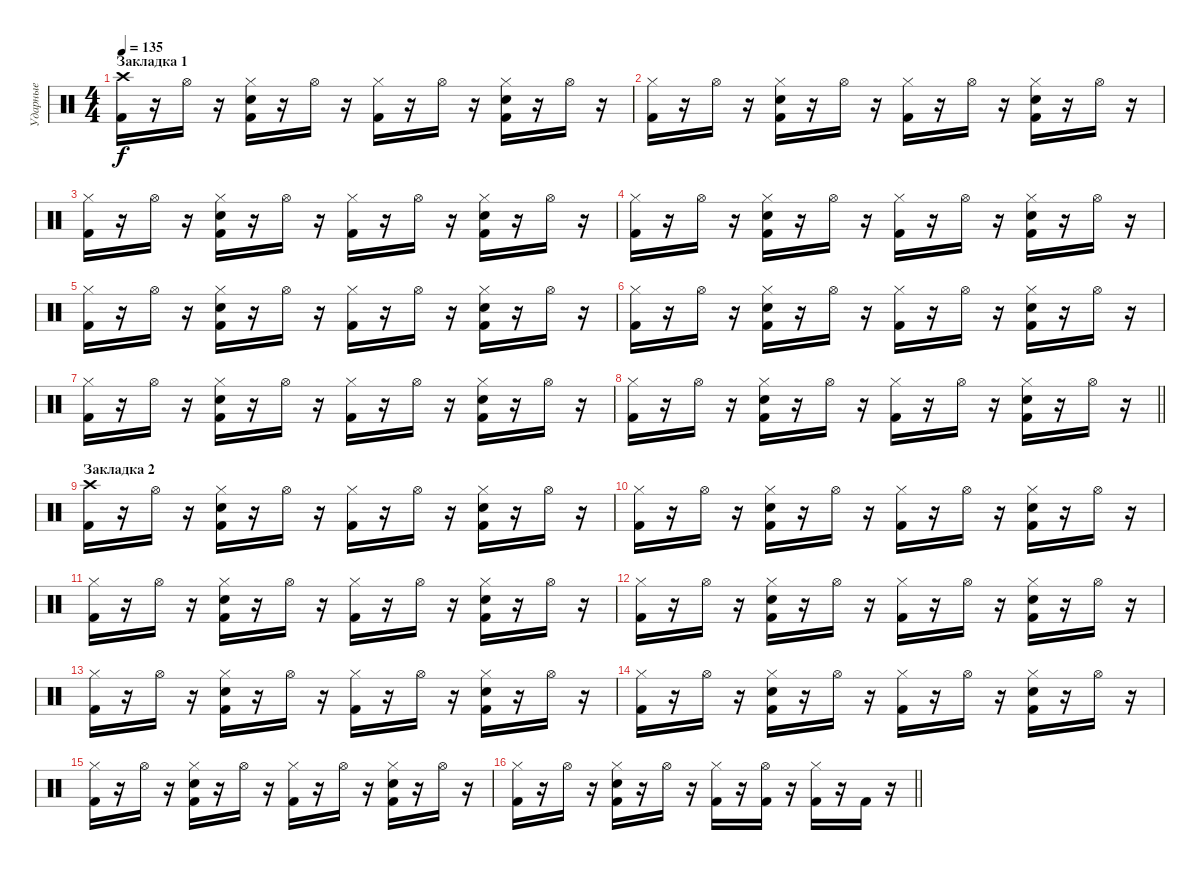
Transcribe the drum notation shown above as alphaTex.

\track ("Ударные" "Ударные") {instrument percussion}
\staff {score}
\articulation defaults
\ts (4 4)
\section ("" "Закладка 1")
\tempo 135
\clef neutral
\ks c
("Crash high (hit)" "Kick (hit) 2").16{dy f} r.16 "Hi-Hat (open)".16 r.16 ("Hi-Hat (closed)" "Electric Snare (hit)" "Kick (hit) 2").16 r.16 "Hi-Hat (open)".16 r.16 ("Hi-Hat (closed)" "Kick (hit) 2").16 r.16 "Hi-Hat (open)".16 r.16 ("Hi-Hat (closed)" "Electric Snare (hit)" "Kick (hit) 2").16 r.16 "Hi-Hat (open)".16 r.16 |
("Hi-Hat (closed)" "Kick (hit) 2").16 r.16 "Hi-Hat (open)".16 r.16 ("Hi-Hat (closed)" "Electric Snare (hit)" "Kick (hit) 2").16 r.16 "Hi-Hat (open)".16 r.16 ("Hi-Hat (closed)" "Kick (hit) 2").16 r.16 "Hi-Hat (open)".16 r.16 ("Hi-Hat (closed)" "Electric Snare (hit)" "Kick (hit) 2").16 r.16 "Hi-Hat (open)".16 r.16 |
("Hi-Hat (closed)" "Kick (hit) 2").16 r.16 "Hi-Hat (open)".16 r.16 ("Hi-Hat (closed)" "Electric Snare (hit)" "Kick (hit) 2").16 r.16 "Hi-Hat (open)".16 r.16 ("Hi-Hat (closed)" "Kick (hit) 2").16 r.16 "Hi-Hat (open)".16 r.16 ("Hi-Hat (closed)" "Electric Snare (hit)" "Kick (hit) 2").16 r.16 "Hi-Hat (open)".16 r.16 |
("Hi-Hat (closed)" "Kick (hit) 2").16 r.16 "Hi-Hat (open)".16 r.16 ("Hi-Hat (closed)" "Electric Snare (hit)" "Kick (hit) 2").16 r.16 "Hi-Hat (open)".16 r.16 ("Hi-Hat (closed)" "Kick (hit) 2").16 r.16 "Hi-Hat (open)".16 r.16 ("Hi-Hat (closed)" "Electric Snare (hit)" "Kick (hit) 2").16 r.16 "Hi-Hat (open)".16 r.16 |
("Hi-Hat (closed)" "Kick (hit) 2").16 r.16 "Hi-Hat (open)".16 r.16 ("Hi-Hat (closed)" "Electric Snare (hit)" "Kick (hit) 2").16 r.16 "Hi-Hat (open)".16 r.16 ("Hi-Hat (closed)" "Kick (hit) 2").16 r.16 "Hi-Hat (open)".16 r.16 ("Hi-Hat (closed)" "Electric Snare (hit)" "Kick (hit) 2").16 r.16 "Hi-Hat (open)".16 r.16 |
("Hi-Hat (closed)" "Kick (hit) 2").16 r.16 "Hi-Hat (open)".16 r.16 ("Hi-Hat (closed)" "Electric Snare (hit)" "Kick (hit) 2").16 r.16 "Hi-Hat (open)".16 r.16 ("Hi-Hat (closed)" "Kick (hit) 2").16 r.16 "Hi-Hat (open)".16 r.16 ("Hi-Hat (closed)" "Electric Snare (hit)" "Kick (hit) 2").16 r.16 "Hi-Hat (open)".16 r.16 |
("Hi-Hat (closed)" "Kick (hit) 2").16 r.16 "Hi-Hat (open)".16 r.16 ("Hi-Hat (closed)" "Electric Snare (hit)" "Kick (hit) 2").16 r.16 "Hi-Hat (open)".16 r.16 ("Hi-Hat (closed)" "Kick (hit) 2").16 r.16 "Hi-Hat (open)".16 r.16 ("Hi-Hat (closed)" "Electric Snare (hit)" "Kick (hit) 2").16 r.16 "Hi-Hat (open)".16 r.16 |
\barLineRight lightlight
("Hi-Hat (closed)" "Kick (hit) 2").16 r.16 "Hi-Hat (open)".16 r.16 ("Hi-Hat (closed)" "Electric Snare (hit)" "Kick (hit) 2").16 r.16 "Hi-Hat (open)".16 r.16 ("Hi-Hat (closed)" "Kick (hit) 2").16 r.16 "Hi-Hat (open)".16 r.16 ("Hi-Hat (closed)" "Electric Snare (hit)" "Kick (hit) 2").16 r.16 "Hi-Hat (open)".16 r.16 |
\section ("" "Закладка 2")
("Crash high (hit)" "Kick (hit) 2").16 r.16 "Hi-Hat (open)".16 r.16 ("Hi-Hat (closed)" "Electric Snare (hit)" "Kick (hit) 2").16 r.16 "Hi-Hat (open)".16 r.16 ("Hi-Hat (closed)" "Kick (hit) 2").16 r.16 "Hi-Hat (open)".16 r.16 ("Hi-Hat (closed)" "Electric Snare (hit)" "Kick (hit) 2").16 r.16 "Hi-Hat (open)".16 r.16 |
("Hi-Hat (closed)" "Kick (hit) 2").16 r.16 "Hi-Hat (open)".16 r.16 ("Hi-Hat (closed)" "Electric Snare (hit)" "Kick (hit) 2").16 r.16 "Hi-Hat (open)".16 r.16 ("Hi-Hat (closed)" "Kick (hit) 2").16 r.16 "Hi-Hat (open)".16 r.16 ("Hi-Hat (closed)" "Electric Snare (hit)" "Kick (hit) 2").16 r.16 "Hi-Hat (open)".16 r.16 |
("Hi-Hat (closed)" "Kick (hit) 2").16 r.16 "Hi-Hat (open)".16 r.16 ("Hi-Hat (closed)" "Electric Snare (hit)" "Kick (hit) 2").16 r.16 "Hi-Hat (open)".16 r.16 ("Hi-Hat (closed)" "Kick (hit) 2").16 r.16 "Hi-Hat (open)".16 r.16 ("Hi-Hat (closed)" "Electric Snare (hit)" "Kick (hit) 2").16 r.16 "Hi-Hat (open)".16 r.16 |
("Hi-Hat (closed)" "Kick (hit) 2").16 r.16 "Hi-Hat (open)".16 r.16 ("Hi-Hat (closed)" "Electric Snare (hit)" "Kick (hit) 2").16 r.16 "Hi-Hat (open)".16 r.16 ("Hi-Hat (closed)" "Kick (hit) 2").16 r.16 "Hi-Hat (open)".16 r.16 ("Hi-Hat (closed)" "Electric Snare (hit)" "Kick (hit) 2").16 r.16 "Hi-Hat (open)".16 r.16 |
("Hi-Hat (closed)" "Kick (hit) 2").16 r.16 "Hi-Hat (open)".16 r.16 ("Hi-Hat (closed)" "Electric Snare (hit)" "Kick (hit) 2").16 r.16 "Hi-Hat (open)".16 r.16 ("Hi-Hat (closed)" "Kick (hit) 2").16 r.16 "Hi-Hat (open)".16 r.16 ("Hi-Hat (closed)" "Electric Snare (hit)" "Kick (hit) 2").16 r.16 "Hi-Hat (open)".16 r.16 |
("Hi-Hat (closed)" "Kick (hit) 2").16 r.16 "Hi-Hat (open)".16 r.16 ("Hi-Hat (closed)" "Electric Snare (hit)" "Kick (hit) 2").16 r.16 "Hi-Hat (open)".16 r.16 ("Hi-Hat (closed)" "Kick (hit) 2").16 r.16 "Hi-Hat (open)".16 r.16 ("Hi-Hat (closed)" "Electric Snare (hit)" "Kick (hit) 2").16 r.16 "Hi-Hat (open)".16 r.16 |
("Hi-Hat (closed)" "Kick (hit) 2").16 r.16 "Hi-Hat (open)".16 r.16 ("Hi-Hat (closed)" "Electric Snare (hit)" "Kick (hit) 2").16 r.16 "Hi-Hat (open)".16 r.16 ("Hi-Hat (closed)" "Kick (hit) 2").16 r.16 "Hi-Hat (open)".16 r.16 ("Hi-Hat (closed)" "Electric Snare (hit)" "Kick (hit) 2").16 r.16 "Hi-Hat (open)".16 r.16 |
\barLineRight lightlight
("Hi-Hat (closed)" "Kick (hit) 2").16 r.16 "Hi-Hat (open)".16 r.16 ("Hi-Hat (closed)" "Electric Snare (hit)" "Kick (hit) 2").16 r.16 "Hi-Hat (open)".16 r.16 ("Hi-Hat (closed)" "Kick (hit) 2").16 r.16 ("Hi-Hat (open)" "Kick (hit) 2").16 r.16 ("Hi-Hat (closed)" "Kick (hit) 2").16 r.16 "Kick (hit) 2".16 r.16
